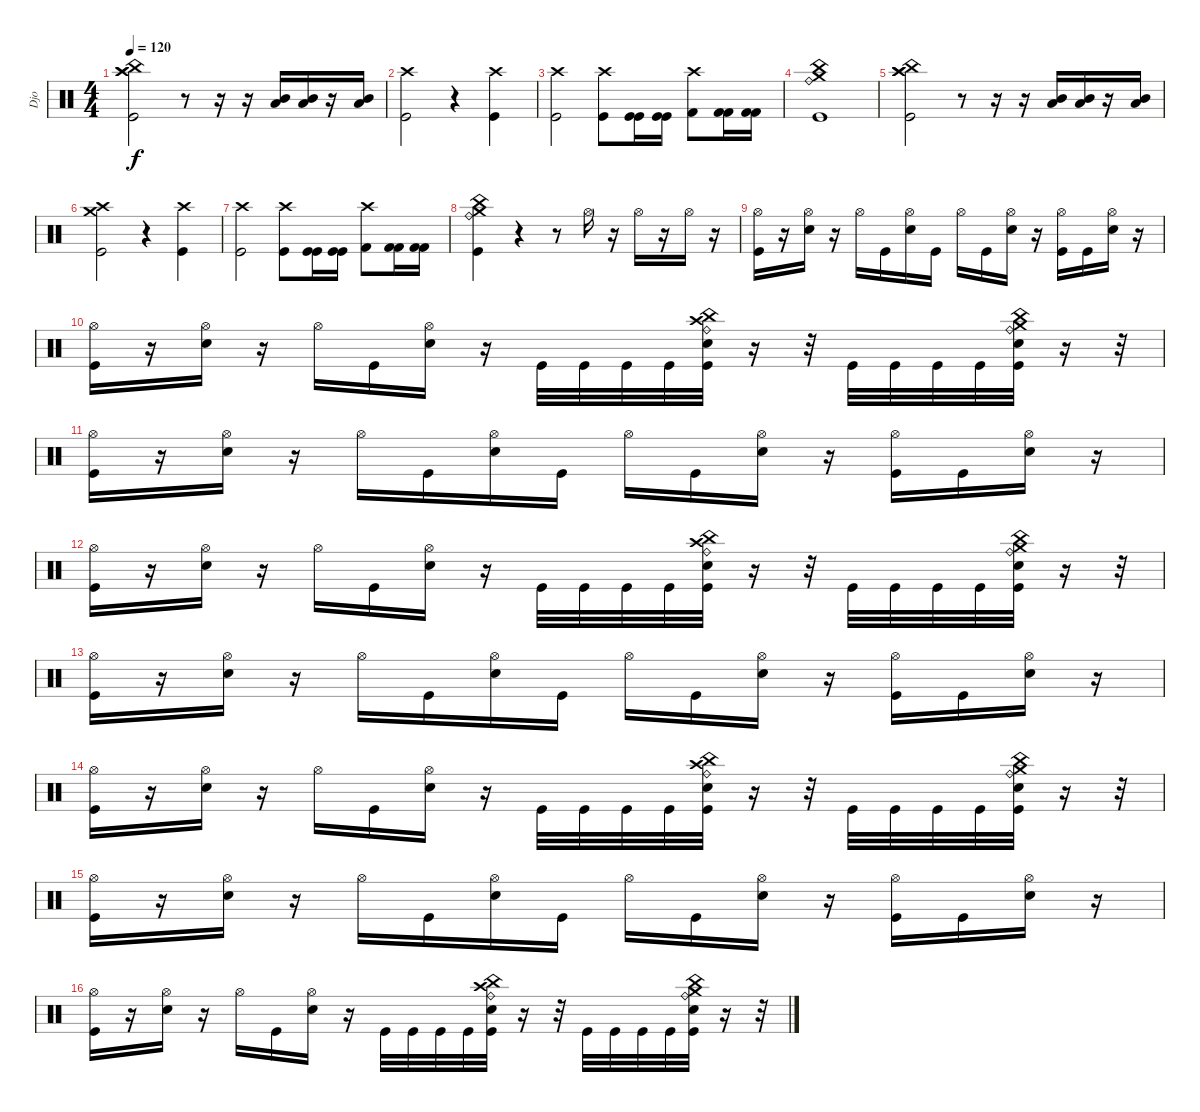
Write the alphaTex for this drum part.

\track ("Djo" "Djo") {instrument percussion}
\staff {score}
\articulation defaults
\ts (4 4)
\tempo 120
\clef neutral
\ks c
("Crash high (hit)" "Crash high (hit)" "China (hit)" "Kick (hit)").2{dy f} r.8 r.16 r.16 ("Mid Tom (hit)" "Low Tom (hit)").16 ("Mid Tom (hit)" "Low Tom (hit)").16 r.16 ("Mid Tom (hit)" "Low Tom (hit)").16 |
("Crash high (hit)" "Kick (hit)").2 r.4 ("Crash high (hit)" "Kick (hit)").4 |
("Crash high (hit)" "Kick (hit)").2 ("Crash high (hit)" "Kick (hit)").8 ("Kick (hit)" "Kick (hit)").16 ("Kick (hit)" "Kick (hit)").16 ("Crash high (hit)" "Kick (hit) 2").8 ("Kick (hit) 2" "Kick (hit) 2").16 ("Kick (hit) 2" "Kick (hit) 2").16 |
("Crash medium (hit)" "China (hit)" "Ride (bell)" "Kick (hit)").1 |
("Crash high (hit)" "Crash high (hit)" "China (hit)" "Kick (hit)").2 r.8 r.16 r.16 ("Mid Tom (hit)" "Low Tom (hit)").16 ("Mid Tom (hit)" "Low Tom (hit)").16 r.16 ("Mid Tom (hit)" "Low Tom (hit)").16 |
("Crash high (hit)" "Crash medium (hit)" "Kick (hit)").2 r.4 ("Crash high (hit)" "Kick (hit)").4 |
("Crash high (hit)" "Kick (hit)").2 ("Crash high (hit)" "Kick (hit)").8 ("Kick (hit)" "Kick (hit)").16 ("Kick (hit)" "Kick (hit)").16 ("Crash high (hit)" "Kick (hit) 2").8 ("Kick (hit) 2" "Kick (hit) 2").16 ("Kick (hit) 2" "Kick (hit) 2").16 |
("Crash medium (hit)" "China (hit)" "Ride (bell)" "Kick (hit)").4 r.4 r.8 "Hi-Hat (open)".16 r.16 "Hi-Hat (open)".16 r.16 "Hi-Hat (open)".16 r.16 |
("Hi-Hat (open)" "Kick (hit)").16 r.16 ("Hi-Hat (open)" "Snare (hit) 2").16 r.16 "Hi-Hat (open)".16 "Kick (hit)".16 ("Hi-Hat (open)" "Snare (hit) 2").16 "Kick (hit)".16 "Hi-Hat (open)".16 "Kick (hit)".16 ("Hi-Hat (open)" "Snare (hit) 2").16 r.16 ("Hi-Hat (open)" "Kick (hit)").16 "Kick (hit)".16 ("Hi-Hat (open)" "Snare (hit) 2").16 r.16 |
("Hi-Hat (open)" "Kick (hit)").16 r.16 ("Hi-Hat (open)" "Snare (hit) 2").16 r.16 "Hi-Hat (open)".16 "Kick (hit)".16 ("Hi-Hat (open)" "Snare (hit) 2").16 r.16 "Kick (hit)".32 "Kick (hit)".32 "Kick (hit)".32 "Kick (hit)".32 ("Crash high (hit)" "China (hit)" "Ride (bell)" "Snare (hit) 2" "Kick (hit)").32 r.16 r.32 "Kick (hit)".32 "Kick (hit)".32 "Kick (hit)".32 "Kick (hit)".32 ("Crash medium (hit)" "China (hit)" "Ride (bell)" "Snare (hit) 2" "Kick (hit)").32 r.16 r.32 |
("Hi-Hat (open)" "Kick (hit)").16 r.16 ("Hi-Hat (open)" "Snare (hit) 2").16 r.16 "Hi-Hat (open)".16 "Kick (hit)".16 ("Hi-Hat (open)" "Snare (hit) 2").16 "Kick (hit)".16 "Hi-Hat (open)".16 "Kick (hit)".16 ("Hi-Hat (open)" "Snare (hit) 2").16 r.16 ("Hi-Hat (open)" "Kick (hit)").16 "Kick (hit)".16 ("Hi-Hat (open)" "Snare (hit) 2").16 r.16 |
("Hi-Hat (open)" "Kick (hit)").16 r.16 ("Hi-Hat (open)" "Snare (hit) 2").16 r.16 "Hi-Hat (open)".16 "Kick (hit)".16 ("Hi-Hat (open)" "Snare (hit) 2").16 r.16 "Kick (hit)".32 "Kick (hit)".32 "Kick (hit)".32 "Kick (hit)".32 ("Crash high (hit)" "China (hit)" "Ride (bell)" "Electric Snare (hit)" "Kick (hit)").32 r.16 r.32 "Kick (hit)".32 "Kick (hit)".32 "Kick (hit)".32 "Kick (hit)".32 ("Crash medium (hit)" "China (hit)" "Ride (bell)" "Electric Snare (hit)" "Kick (hit)").32 r.16 r.32 |
("Hi-Hat (open)" "Kick (hit)").16 r.16 ("Hi-Hat (open)" "Snare (hit) 2").16 r.16 "Hi-Hat (open)".16 "Kick (hit)".16 ("Hi-Hat (open)" "Snare (hit) 2").16 "Kick (hit)".16 "Hi-Hat (open)".16 "Kick (hit)".16 ("Hi-Hat (open)" "Snare (hit) 2").16 r.16 ("Hi-Hat (open)" "Kick (hit)").16 "Kick (hit)".16 ("Hi-Hat (open)" "Snare (hit) 2").16 r.16 |
("Hi-Hat (open)" "Kick (hit)").16 r.16 ("Hi-Hat (open)" "Snare (hit) 2").16 r.16 "Hi-Hat (open)".16 "Kick (hit)".16 ("Hi-Hat (open)" "Snare (hit) 2").16 r.16 "Kick (hit)".32 "Kick (hit)".32 "Kick (hit)".32 "Kick (hit)".32 ("Crash high (hit)" "China (hit)" "Ride (bell)" "Electric Snare (hit)" "Kick (hit)").32 r.16 r.32 "Kick (hit)".32 "Kick (hit)".32 "Kick (hit)".32 "Kick (hit)".32 ("Crash medium (hit)" "China (hit)" "Ride (bell)" "Electric Snare (hit)" "Kick (hit)").32 r.16 r.32 |
("Hi-Hat (open)" "Kick (hit)").16 r.16 ("Hi-Hat (open)" "Snare (hit) 2").16 r.16 "Hi-Hat (open)".16 "Kick (hit)".16 ("Hi-Hat (open)" "Snare (hit) 2").16 "Kick (hit)".16 "Hi-Hat (open)".16 "Kick (hit)".16 ("Hi-Hat (open)" "Snare (hit) 2").16 r.16 ("Hi-Hat (open)" "Kick (hit)").16 "Kick (hit)".16 ("Hi-Hat (open)" "Snare (hit) 2").16 r.16 |
("Hi-Hat (open)" "Kick (hit)").16 r.16 ("Hi-Hat (open)" "Snare (hit) 2").16 r.16 "Hi-Hat (open)".16 "Kick (hit)".16 ("Hi-Hat (open)" "Snare (hit) 2").16 r.16 "Kick (hit)".32 "Kick (hit)".32 "Kick (hit)".32 "Kick (hit)".32 ("Crash high (hit)" "China (hit)" "Ride (bell)" "Electric Snare (hit)" "Kick (hit)").32 r.16 r.32 "Kick (hit)".32 "Kick (hit)".32 "Kick (hit)".32 "Kick (hit)".32 ("Crash medium (hit)" "China (hit)" "Ride (bell)" "Electric Snare (hit)" "Kick (hit)").32 r.16 r.32
